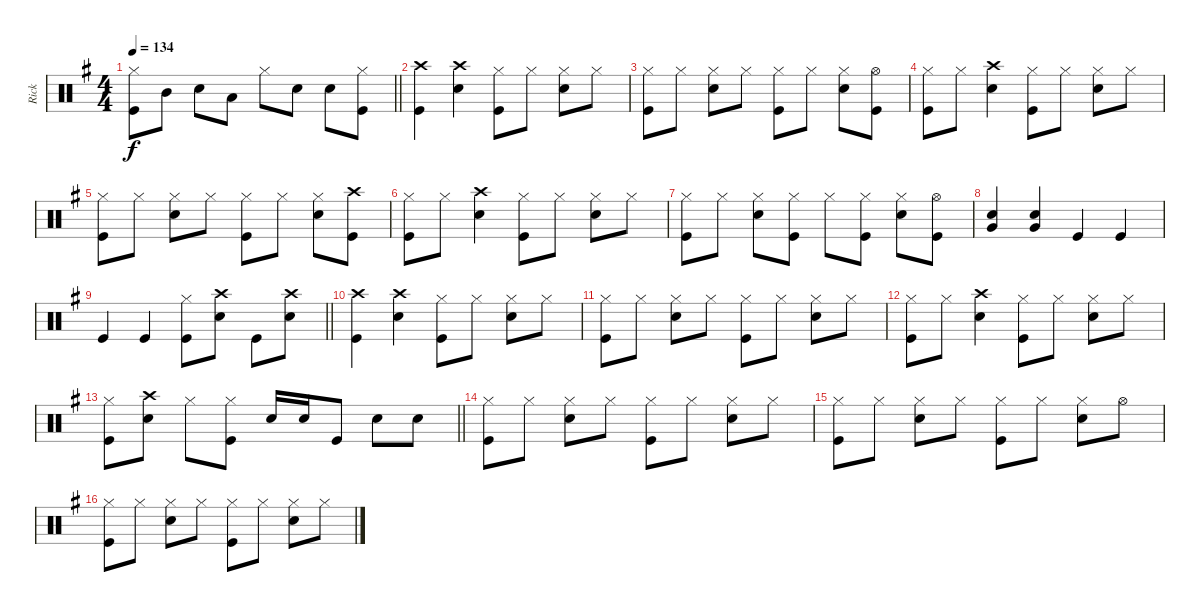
\track ("Rick" "Rick") {instrument percussion}
\staff {score}
\articulation defaults
\ts (4 4)
\tempo 134
\clef neutral
\barLineRight lightlight
\ks g
("Hi-Hat (closed)" "Kick (hit)").8{dy f} "Mid Tom (hit)".8 "Snare (hit) 2".8 "Low Tom (hit)".8 "Hi-Hat (closed)".8 "Snare (hit) 2".8 "Snare (hit) 2".8 ("Hi-Hat (closed)" "Kick (hit)").8 |
("Crash high (hit)" "Kick (hit)").4 ("Crash high (hit)" "Snare (hit) 2").4 ("Hi-Hat (closed)" "Kick (hit)").8 "Hi-Hat (closed)".8 ("Hi-Hat (closed)" "Snare (hit) 2").8 "Hi-Hat (closed)".8 |
("Hi-Hat (closed)" "Kick (hit)").8 "Hi-Hat (closed)".8 ("Hi-Hat (closed)" "Snare (hit) 2").8 "Hi-Hat (closed)".8 ("Hi-Hat (closed)" "Kick (hit)").8 "Hi-Hat (closed)".8 ("Hi-Hat (closed)" "Snare (hit) 2").8 ("Hi-Hat (open)" "Kick (hit)").8 |
("Hi-Hat (closed)" "Kick (hit)").8 "Hi-Hat (closed)".8 ("Crash high (hit)" "Snare (hit) 2").4 ("Hi-Hat (closed)" "Kick (hit)").8 "Hi-Hat (closed)".8 ("Hi-Hat (closed)" "Snare (hit) 2").8 "Hi-Hat (closed)".8 |
("Hi-Hat (closed)" "Kick (hit)").8 "Hi-Hat (closed)".8 ("Hi-Hat (closed)" "Snare (hit) 2").8 "Hi-Hat (closed)".8 ("Hi-Hat (closed)" "Kick (hit)").8 "Hi-Hat (closed)".8 ("Hi-Hat (closed)" "Snare (hit) 2").8 ("Crash high (hit)" "Kick (hit)").8 |
("Hi-Hat (closed)" "Kick (hit)").8 "Hi-Hat (closed)".8 ("Crash high (hit)" "Snare (hit) 2").4 ("Hi-Hat (closed)" "Kick (hit)").8 "Hi-Hat (closed)".8 ("Hi-Hat (closed)" "Snare (hit) 2").8 "Hi-Hat (closed)".8 |
("Hi-Hat (closed)" "Kick (hit)").8 "Hi-Hat (closed)".8 ("Hi-Hat (closed)" "Snare (hit) 2").8 ("Hi-Hat (closed)" "Kick (hit)").8 "Hi-Hat (closed)".8 ("Hi-Hat (closed)" "Kick (hit)").8 ("Hi-Hat (closed)" "Snare (hit) 2").8 ("Hi-Hat (open)" "Kick (hit)").8 |
("Snare (hit) 2" "Very Low Tom (hit)").4 ("Snare (hit) 2" "Very Low Tom (hit)").4 "Kick (hit)".4 "Kick (hit)".4 |
\barLineRight lightlight "Kick (hit)".4 "Kick (hit)".4
("Hi-Hat (closed)" "Kick (hit)").8 ("Crash high (hit)" "Snare (hit) 2").8 "Kick (hit)".8 ("Crash high (hit)" "Snare (hit) 2").8 |
("Crash high (hit)" "Kick (hit)").4 ("Crash high (hit)" "Snare (hit) 2").4 ("Hi-Hat (closed)" "Kick (hit)").8 "Hi-Hat (closed)".8 ("Hi-Hat (closed)" "Snare (hit) 2").8 "Hi-Hat (closed)".8 |
("Hi-Hat (closed)" "Kick (hit)").8 "Hi-Hat (closed)".8 ("Hi-Hat (closed)" "Snare (hit) 2").8 "Hi-Hat (closed)".8 ("Hi-Hat (closed)" "Kick (hit)").8 "Hi-Hat (closed)".8 ("Hi-Hat (closed)" "Snare (hit) 2").8 "Hi-Hat (closed)".8 |
("Hi-Hat (closed)" "Kick (hit)").8 "Hi-Hat (closed)".8 ("Crash high (hit)" "Snare (hit) 2").4 ("Hi-Hat (closed)" "Kick (hit)").8 "Hi-Hat (closed)".8 ("Hi-Hat (closed)" "Snare (hit) 2").8 "Hi-Hat (closed)".8 |
\barLineRight lightlight
("Hi-Hat (closed)" "Kick (hit)").8 ("Crash high (hit)" "Snare (hit) 2").8 "Hi-Hat (closed)".8 ("Hi-Hat (closed)" "Kick (hit)").8 "Snare (hit) 2".16 "Snare (hit) 2".16 "Kick (hit)".8 "Snare (hit) 2".8 "Snare (hit) 2".8 |
("Hi-Hat (closed)" "Kick (hit)").8 "Hi-Hat (closed)".8 ("Hi-Hat (closed)" "Snare (hit) 2").8 "Hi-Hat (closed)".8 ("Hi-Hat (closed)" "Kick (hit)").8 "Hi-Hat (closed)".8 ("Hi-Hat (closed)" "Snare (hit) 2").8 "Hi-Hat (closed)".8 |
("Hi-Hat (closed)" "Kick (hit)").8 "Hi-Hat (closed)".8 ("Hi-Hat (closed)" "Snare (hit) 2").8 "Hi-Hat (closed)".8 ("Hi-Hat (closed)" "Kick (hit)").8 "Hi-Hat (closed)".8 ("Hi-Hat (closed)" "Snare (hit) 2").8 "Hi-Hat (open)".8 |
("Hi-Hat (closed)" "Kick (hit)").8 "Hi-Hat (closed)".8 ("Hi-Hat (closed)" "Snare (hit) 2").8 "Hi-Hat (closed)".8 ("Hi-Hat (closed)" "Kick (hit)").8 "Hi-Hat (closed)".8 ("Hi-Hat (closed)" "Snare (hit) 2").8 "Hi-Hat (closed)".8
